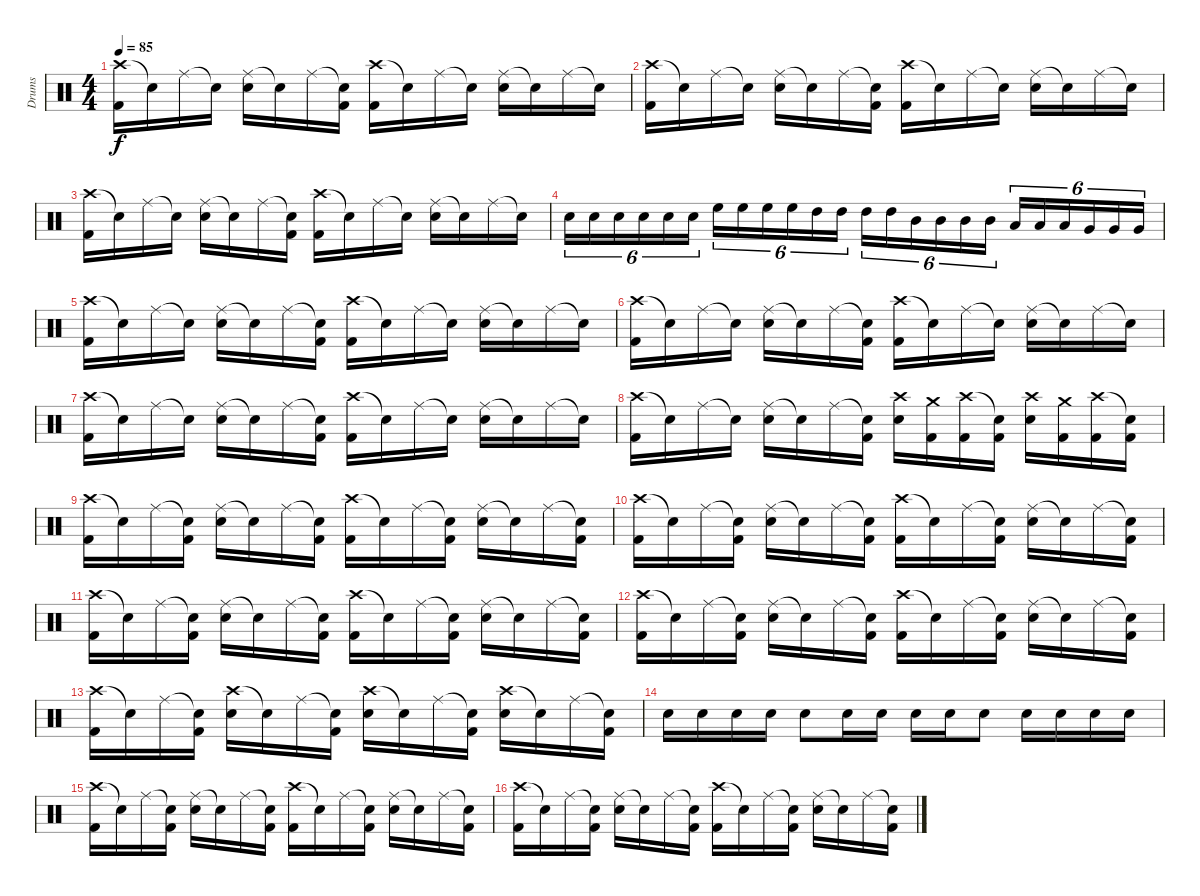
\track ("Drums" "Drums") {instrument percussion}
\staff {score}
\articulation defaults
\ts (4 4)
\tempo 85
\clef neutral
\ks c
("Crash high (hit)" "Kick (hit) 2").16{dy f} "Snare (hit)"{t}.16 "Ride (middle)".16 "Snare (hit)"{t}.16 ("Ride (middle)" "Snare (hit) 2").16 "Snare (hit)"{t}.16 "Ride (middle)".16 ("Snare (hit)"{t} "Kick (hit) 2").16 ("Crash high (hit)" "Kick (hit) 2").16 "Snare (hit)"{t}.16 "Ride (middle)".16 "Snare (hit)"{t}.16 ("Ride (middle)" "Snare (hit) 2").16 "Snare (hit)"{t}.16 "Ride (middle)".16 "Snare (hit)"{t}.16 |
("Crash high (hit)" "Kick (hit) 2").16 "Snare (hit)"{t}.16 "Ride (middle)".16 "Snare (hit)"{t}.16 ("Ride (middle)" "Snare (hit) 2").16 "Snare (hit)"{t}.16 "Ride (middle)".16 ("Snare (hit)"{t} "Kick (hit) 2").16 ("Crash high (hit)" "Kick (hit) 2").16 "Snare (hit)"{t}.16 "Ride (middle)".16 "Snare (hit)"{t}.16 ("Ride (middle)" "Snare (hit) 2").16 "Snare (hit)"{t}.16 "Ride (middle)".16 "Snare (hit)"{t}.16 |
("Crash high (hit)" "Kick (hit) 2").16 "Snare (hit)"{t}.16 "Ride (middle)".16 "Snare (hit)"{t}.16 ("Ride (middle)" "Snare (hit) 2").16 "Snare (hit)"{t}.16 "Ride (middle)".16 ("Snare (hit)"{t} "Kick (hit) 2").16 ("Crash high (hit)" "Kick (hit) 2").16 "Snare (hit)"{t}.16 "Ride (middle)".16 "Snare (hit)"{t}.16 ("Ride (middle)" "Snare (hit) 2").16 "Snare (hit)"{t}.16 "Ride (middle)".16 "Snare (hit)"{t}.16 |
"Snare (hit) 2".16{tu (6 4)} "Snare (hit) 2".16{tu (6 4)} "Snare (hit) 2".16{tu (6 4)} "Snare (hit) 2".16{tu (6 4)} "Snare (hit) 2".16{tu (6 4)} "Snare (hit) 2".16{tu (6 4)} "High Floor Tom (hit)".16{tu (6 4)} "High Floor Tom (hit)".16{tu (6 4)} "High Floor Tom (hit)".16{tu (6 4)} "High Floor Tom (hit)".16{tu (6 4)} "High Tom (hit)".16{tu (6 4)} "High Tom (hit)".16{tu (6 4)} "High Tom (hit)".16{tu (6 4)} "High Tom (hit)".16{tu (6 4)} "Mid Tom (hit)".16{tu (6 4)} "Mid Tom (hit)".16{tu (6 4)} "Mid Tom (hit)".16{tu (6 4)} "Mid Tom (hit)".16{tu (6 4)} "Low Tom (hit)".16{tu (6 4)} "Low Tom (hit)".16{tu (6 4)} "Low Tom (hit)".16{tu (6 4)} "Very Low Tom (hit)".16{tu (6 4)} "Very Low Tom (hit)".16{tu (6 4)} "Very Low Tom (hit)".16{tu (6 4)} |
("Crash high (hit)" "Kick (hit) 2").16 "Snare (hit)"{t}.16 "Ride (middle)".16 "Snare (hit)"{t}.16 ("Ride (middle)" "Snare (hit) 2").16 "Snare (hit)"{t}.16 "Ride (middle)".16 ("Snare (hit)"{t} "Kick (hit) 2").16 ("Crash high (hit)" "Kick (hit) 2").16 "Snare (hit)"{t}.16 "Ride (middle)".16 "Snare (hit)"{t}.16 ("Ride (middle)" "Snare (hit) 2").16 "Snare (hit)"{t}.16 "Ride (middle)".16 "Snare (hit)"{t}.16 |
("Crash high (hit)" "Kick (hit) 2").16 "Snare (hit)"{t}.16 "Ride (middle)".16 "Snare (hit)"{t}.16 ("Ride (middle)" "Snare (hit) 2").16 "Snare (hit)"{t}.16 "Ride (middle)".16 ("Snare (hit)"{t} "Kick (hit) 2").16 ("Crash high (hit)" "Kick (hit) 2").16 "Snare (hit)"{t}.16 "Ride (middle)".16 "Snare (hit)"{t}.16 ("Ride (middle)" "Snare (hit) 2").16 "Snare (hit)"{t}.16 "Ride (middle)".16 "Snare (hit)"{t}.16 |
("Crash high (hit)" "Kick (hit) 2").16 "Snare (hit)"{t}.16 "Ride (middle)".16 "Snare (hit)"{t}.16 ("Ride (middle)" "Snare (hit) 2").16 "Snare (hit)"{t}.16 "Ride (middle)".16 ("Snare (hit)"{t} "Kick (hit) 2").16 ("Crash high (hit)" "Kick (hit) 2").16 "Snare (hit)"{t}.16 "Ride (middle)".16 "Snare (hit)"{t}.16 ("Ride (middle)" "Snare (hit) 2").16 "Snare (hit)"{t}.16 "Ride (middle)".16 "Snare (hit)"{t}.16 |
("Crash high (hit)" "Kick (hit) 2").16 "Snare (hit)"{t}.16 "Ride (middle)".16 "Snare (hit)"{t}.16 ("Ride (middle)" "Snare (hit) 2").16 "Snare (hit)"{t}.16 "Ride (middle)".16 ("Snare (hit)"{t} "Kick (hit) 2").16 ("Crash high (hit)" "Snare (hit) 2").16 ("Crash medium (hit)" "Kick (hit) 2").16 ("Crash high (hit)" "Kick (hit) 2").16 ("Snare (hit)"{t} "Kick (hit) 2").16 ("Crash high (hit)" "Snare (hit) 2").16 ("Crash medium (hit)" "Kick (hit) 2").16 ("Crash high (hit)" "Kick (hit) 2").16 ("Snare (hit)"{t} "Kick (hit) 2").16 |
("Crash high (hit)" "Kick (hit) 2").16 "Snare (hit)"{t}.16 "Ride (middle)".16 ("Snare (hit)"{t} "Kick (hit) 2").16 ("Ride (middle)" "Snare (hit) 2").16 "Snare (hit)"{t}.16 "Ride (middle)".16 ("Snare (hit)"{t} "Kick (hit) 2").16 ("Crash high (hit)" "Kick (hit) 2").16 "Snare (hit)"{t}.16 "Ride (middle)".16 ("Snare (hit)"{t} "Kick (hit) 2").16 ("Ride (middle)" "Snare (hit) 2").16 "Snare (hit)"{t}.16 "Ride (middle)".16 ("Snare (hit)"{t} "Kick (hit) 2").16 |
("Crash high (hit)" "Kick (hit) 2").16 "Snare (hit)"{t}.16 "Ride (middle)".16 ("Snare (hit)"{t} "Kick (hit) 2").16 ("Ride (middle)" "Snare (hit) 2").16 "Snare (hit)"{t}.16 "Ride (middle)".16 ("Snare (hit)"{t} "Kick (hit) 2").16 ("Crash high (hit)" "Kick (hit) 2").16 "Snare (hit)"{t}.16 "Ride (middle)".16 ("Snare (hit)"{t} "Kick (hit) 2").16 ("Ride (middle)" "Snare (hit) 2").16 "Snare (hit)"{t}.16 "Ride (middle)".16 ("Snare (hit)"{t} "Kick (hit) 2").16 |
("Crash high (hit)" "Kick (hit) 2").16 "Snare (hit)"{t}.16 "Ride (middle)".16 ("Snare (hit)"{t} "Kick (hit) 2").16 ("Ride (middle)" "Snare (hit) 2").16 "Snare (hit)"{t}.16 "Ride (middle)".16 ("Snare (hit)"{t} "Kick (hit) 2").16 ("Crash high (hit)" "Kick (hit) 2").16 "Snare (hit)"{t}.16 "Ride (middle)".16 ("Snare (hit)"{t} "Kick (hit) 2").16 ("Ride (middle)" "Snare (hit) 2").16 "Snare (hit)"{t}.16 "Ride (middle)".16 ("Snare (hit)"{t} "Kick (hit) 2").16 |
("Crash high (hit)" "Kick (hit) 2").16 "Snare (hit)"{t}.16 "Ride (middle)".16 ("Snare (hit)"{t} "Kick (hit) 2").16 ("Ride (middle)" "Snare (hit) 2").16 "Snare (hit)"{t}.16 "Ride (middle)".16 ("Snare (hit)"{t} "Kick (hit) 2").16 ("Crash high (hit)" "Kick (hit) 2").16 "Snare (hit)"{t}.16 "Ride (middle)".16 ("Snare (hit)"{t} "Kick (hit) 2").16 ("Ride (middle)" "Snare (hit) 2").16 "Snare (hit)"{t}.16 "Ride (middle)".16 ("Snare (hit)"{t} "Kick (hit) 2").16 |
("Crash high (hit)" "Kick (hit) 2").16 "Snare (hit)"{t}.16 "Ride (middle)".16 ("Snare (hit)"{t} "Kick (hit) 2").16 ("Crash high (hit)" "Snare (hit) 2").16 "Snare (hit)"{t}.16 "Ride (middle)".16 ("Snare (hit)"{t} "Kick (hit) 2").16 ("Crash high (hit)" "Snare (hit) 2").16 "Snare (hit)"{t}.16 "Ride (middle)".16 ("Snare (hit)"{t} "Kick (hit) 2").16 ("Crash high (hit)" "Snare (hit) 2").16 "Snare (hit)"{t}.16 "Ride (middle)".16 ("Snare (hit)"{t} "Kick (hit) 2").16 |
"Snare (hit) 2".16 "Snare (hit) 2".16 "Snare (hit) 2".16 "Snare (hit) 2".16 "Snare (hit) 2".8 "Snare (hit) 2".16 "Snare (hit) 2".16 "Snare (hit) 2".16 "Snare (hit) 2".16 "Snare (hit) 2".8 "Snare (hit) 2".16 "Snare (hit) 2".16 "Snare (hit) 2".16 "Snare (hit) 2".16 |
("Crash high (hit)" "Kick (hit) 2").16 "Snare (hit)"{t}.16 "Ride (middle)".16 ("Snare (hit)"{t} "Kick (hit) 2").16 ("Ride (middle)" "Snare (hit) 2").16 "Snare (hit)"{t}.16 "Ride (middle)".16 ("Snare (hit)"{t} "Kick (hit) 2").16 ("Crash high (hit)" "Kick (hit) 2").16 "Snare (hit)"{t}.16 "Ride (middle)".16 ("Snare (hit)"{t} "Kick (hit) 2").16 ("Ride (middle)" "Snare (hit) 2").16 "Snare (hit)"{t}.16 "Ride (middle)".16 ("Snare (hit)"{t} "Kick (hit) 2").16 |
("Crash high (hit)" "Kick (hit) 2").16 "Snare (hit)"{t}.16 "Ride (middle)".16 ("Snare (hit)"{t} "Kick (hit) 2").16 ("Ride (middle)" "Snare (hit) 2").16 "Snare (hit)"{t}.16 "Ride (middle)".16 ("Snare (hit)"{t} "Kick (hit) 2").16 ("Crash high (hit)" "Kick (hit) 2").16 "Snare (hit)"{t}.16 "Ride (middle)".16 ("Snare (hit)"{t} "Kick (hit) 2").16 ("Ride (middle)" "Snare (hit) 2").16 "Snare (hit)"{t}.16 "Ride (middle)".16 ("Snare (hit)"{t} "Kick (hit) 2").16
